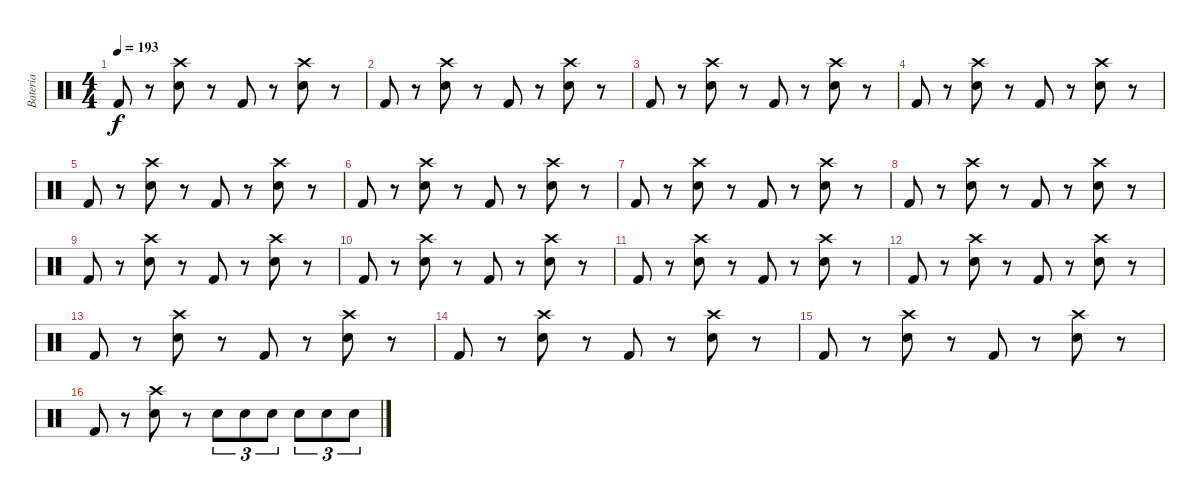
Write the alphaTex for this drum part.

\track ("Bateria" "Bateria") {instrument percussion}
\staff {score}
\articulation defaults
\ts (4 4)
\tempo 193
\clef neutral
\ks c "Kick (hit) 2".8{dy f}
r.8 ("Electric Snare (hit)" "Crash high (hit)").8 r.8 "Kick (hit) 2".8 r.8 ("Electric Snare (hit)" "Crash high (hit)").8 r.8 |
"Kick (hit) 2".8 r.8 ("Electric Snare (hit)" "Crash high (hit)").8 r.8 "Kick (hit) 2".8 r.8 ("Electric Snare (hit)" "Crash high (hit)").8 r.8 |
"Kick (hit) 2".8 r.8 ("Electric Snare (hit)" "Crash high (hit)").8 r.8 "Kick (hit) 2".8 r.8 ("Electric Snare (hit)" "Crash high (hit)").8 r.8 |
"Kick (hit) 2".8 r.8 ("Electric Snare (hit)" "Crash high (hit)").8 r.8 "Kick (hit) 2".8 r.8 ("Electric Snare (hit)" "Crash high (hit)").8 r.8 |
"Kick (hit) 2".8 r.8 ("Electric Snare (hit)" "Crash high (hit)").8 r.8 "Kick (hit) 2".8 r.8 ("Electric Snare (hit)" "Crash high (hit)").8 r.8 |
"Kick (hit) 2".8 r.8 ("Electric Snare (hit)" "Crash high (hit)").8 r.8 "Kick (hit) 2".8 r.8 ("Electric Snare (hit)" "Crash high (hit)").8 r.8 |
"Kick (hit) 2".8 r.8 ("Electric Snare (hit)" "Crash high (hit)").8 r.8 "Kick (hit) 2".8 r.8 ("Electric Snare (hit)" "Crash high (hit)").8 r.8 |
"Kick (hit) 2".8 r.8 ("Electric Snare (hit)" "Crash high (hit)").8 r.8 "Kick (hit) 2".8 r.8 ("Electric Snare (hit)" "Crash high (hit)").8 r.8 |
"Kick (hit) 2".8 r.8 ("Electric Snare (hit)" "Crash high (hit)").8 r.8 "Kick (hit) 2".8 r.8 ("Electric Snare (hit)" "Crash high (hit)").8 r.8 |
"Kick (hit) 2".8 r.8 ("Electric Snare (hit)" "Crash high (hit)").8 r.8 "Kick (hit) 2".8 r.8 ("Electric Snare (hit)" "Crash high (hit)").8 r.8 |
"Kick (hit) 2".8 r.8 ("Electric Snare (hit)" "Crash high (hit)").8 r.8 "Kick (hit) 2".8 r.8 ("Electric Snare (hit)" "Crash high (hit)").8 r.8 |
"Kick (hit) 2".8 r.8 ("Electric Snare (hit)" "Crash high (hit)").8 r.8 "Kick (hit) 2".8 r.8 ("Electric Snare (hit)" "Crash high (hit)").8 r.8 |
"Kick (hit) 2".8 r.8 ("Electric Snare (hit)" "Crash high (hit)").8 r.8 "Kick (hit) 2".8 r.8 ("Electric Snare (hit)" "Crash high (hit)").8 r.8 |
"Kick (hit) 2".8 r.8 ("Electric Snare (hit)" "Crash high (hit)").8 r.8 "Kick (hit) 2".8 r.8 ("Electric Snare (hit)" "Crash high (hit)").8 r.8 |
"Kick (hit) 2".8 r.8 ("Electric Snare (hit)" "Crash high (hit)").8 r.8 "Kick (hit) 2".8 r.8 ("Electric Snare (hit)" "Crash high (hit)").8 r.8 |
"Kick (hit) 2".8 r.8 ("Electric Snare (hit)" "Crash high (hit)").8 r.8 "Electric Snare (hit)".8{tu (3 2)} "Electric Snare (hit)".8{tu (3 2)} "Electric Snare (hit)".8{tu (3 2)} "Electric Snare (hit)".8{tu (3 2)} "Electric Snare (hit)".8{tu (3 2)} "Electric Snare (hit)".8{tu (3 2)}
